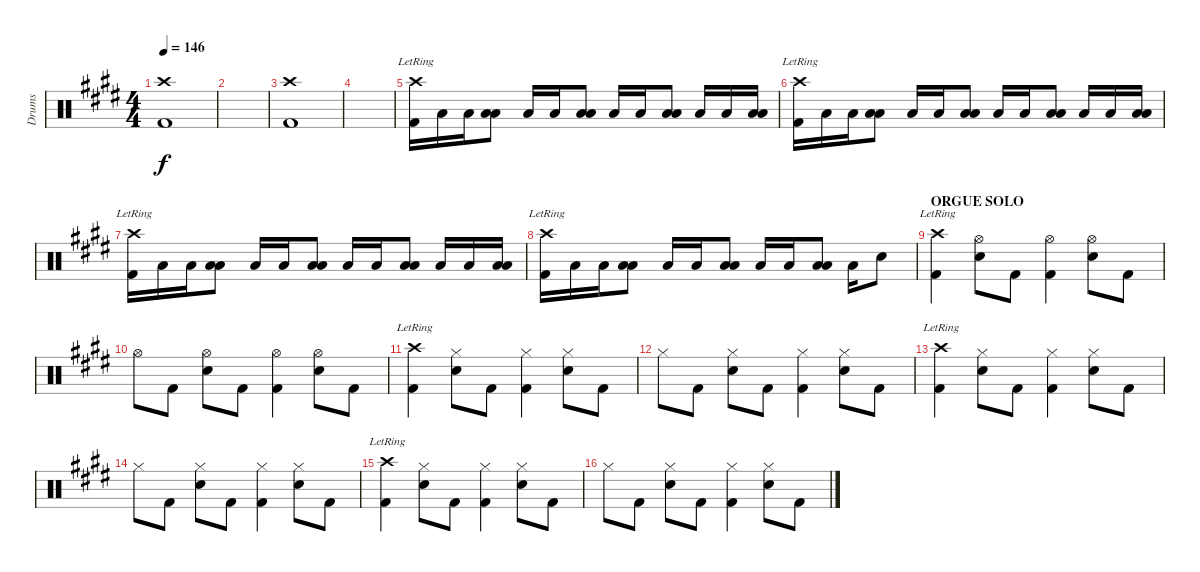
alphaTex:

\track ("Drums" "Drums") {instrument percussion}
\staff {score}
\articulation defaults
\ts (4 4)
\tempo 146
\clef neutral
\ks e
("Kick (hit) 2" "Crash high (hit)").1{dy f} |
|
("Kick (hit) 2" "Crash high (hit)").1 |
|
("Kick (hit) 2" "Crash high (hit)"{lr}).16 "Low Floor Tom (hit)".16 "Low Floor Tom (hit)".16 ("Low Floor Tom (hit)" "Low Floor Tom (hit)").8 "Low Floor Tom (hit)".16 "Low Floor Tom (hit)".16 ("Low Floor Tom (hit)" "Low Floor Tom (hit)").8 "Low Floor Tom (hit)".16 "Low Floor Tom (hit)".16 ("Low Floor Tom (hit)" "Low Floor Tom (hit)").8 "Low Floor Tom (hit)".16 "Low Floor Tom (hit)".16 ("Low Floor Tom (hit)" "Low Floor Tom (hit)").16 |
("Kick (hit) 2" "Crash high (hit)"{lr}).16 "Low Floor Tom (hit)".16 "Low Floor Tom (hit)".16 ("Low Floor Tom (hit)" "Low Floor Tom (hit)").8 "Low Floor Tom (hit)".16 "Low Floor Tom (hit)".16 ("Low Floor Tom (hit)" "Low Floor Tom (hit)").8 "Low Floor Tom (hit)".16 "Low Floor Tom (hit)".16 ("Low Floor Tom (hit)" "Low Floor Tom (hit)").8 "Low Floor Tom (hit)".16 "Low Floor Tom (hit)".16 ("Low Floor Tom (hit)" "Low Floor Tom (hit)").16 |
("Kick (hit) 2" "Crash high (hit)"{lr}).16 "Low Floor Tom (hit)".16 "Low Floor Tom (hit)".16 ("Low Floor Tom (hit)" "Low Floor Tom (hit)").8 "Low Floor Tom (hit)".16 "Low Floor Tom (hit)".16 ("Low Floor Tom (hit)" "Low Floor Tom (hit)").8 "Low Floor Tom (hit)".16 "Low Floor Tom (hit)".16 ("Low Floor Tom (hit)" "Low Floor Tom (hit)").8 "Low Floor Tom (hit)".16 "Low Floor Tom (hit)".16 ("Low Floor Tom (hit)" "Low Floor Tom (hit)").16 |
("Kick (hit) 2" "Crash high (hit)"{lr}).16 "Low Floor Tom (hit)".16 "Low Floor Tom (hit)".16 ("Low Floor Tom (hit)" "Low Floor Tom (hit)").8 "Low Floor Tom (hit)".16 "Low Floor Tom (hit)".16 ("Low Floor Tom (hit)" "Low Floor Tom (hit)").8 "Low Floor Tom (hit)".16 "Low Floor Tom (hit)".16 ("Low Floor Tom (hit)" "Low Floor Tom (hit)").8 "Low Floor Tom (hit)".16 "Snare (hit) 2".8 |
\section ("" "ORGUE SOLO")
("Kick (hit) 2" "Crash high (hit)"{lr}).4 ("Snare (hit) 2" "Hi-Hat (open)").8 "Kick (hit) 2".8 ("Kick (hit) 2" "Hi-Hat (open)").4 ("Snare (hit) 2" "Hi-Hat (open)").8 "Kick (hit) 2".8 |
"Hi-Hat (open)".8 "Kick (hit) 2".8 ("Snare (hit) 2" "Hi-Hat (open)").8 "Kick (hit) 2".8 ("Kick (hit) 2" "Hi-Hat (open)").4 ("Snare (hit) 2" "Hi-Hat (open)").8 "Kick (hit) 2".8 |
("Kick (hit) 2" "Crash high (hit)"{lr}).4 ("Snare (hit) 2" "Hi-Hat (closed)").8 "Kick (hit) 2".8 ("Kick (hit) 2" "Hi-Hat (closed)").4 ("Snare (hit) 2" "Hi-Hat (closed)").8 "Kick (hit) 2".8 |
"Hi-Hat (closed)".8 "Kick (hit) 2".8 ("Snare (hit) 2" "Hi-Hat (closed)").8 "Kick (hit) 2".8 ("Kick (hit) 2" "Hi-Hat (closed)").4 ("Snare (hit) 2" "Hi-Hat (closed)").8 "Kick (hit) 2".8 |
("Kick (hit) 2" "Crash high (hit)"{lr}).4 ("Snare (hit) 2" "Hi-Hat (closed)").8 "Kick (hit) 2".8 ("Kick (hit) 2" "Hi-Hat (closed)").4 ("Snare (hit) 2" "Hi-Hat (closed)").8 "Kick (hit) 2".8 |
"Hi-Hat (closed)".8 "Kick (hit) 2".8 ("Snare (hit) 2" "Hi-Hat (closed)").8 "Kick (hit) 2".8 ("Kick (hit) 2" "Hi-Hat (closed)").4 ("Snare (hit) 2" "Hi-Hat (closed)").8 "Kick (hit) 2".8 |
("Kick (hit) 2" "Crash high (hit)"{lr}).4 ("Snare (hit) 2" "Hi-Hat (closed)").8 "Kick (hit) 2".8 ("Kick (hit) 2" "Hi-Hat (closed)").4 ("Snare (hit) 2" "Hi-Hat (closed)").8 "Kick (hit) 2".8 |
"Hi-Hat (closed)".8 "Kick (hit) 2".8 ("Snare (hit) 2" "Hi-Hat (closed)").8 "Kick (hit) 2".8 ("Kick (hit) 2" "Hi-Hat (closed)").4 ("Snare (hit) 2" "Hi-Hat (closed)").8 "Kick (hit) 2".8
